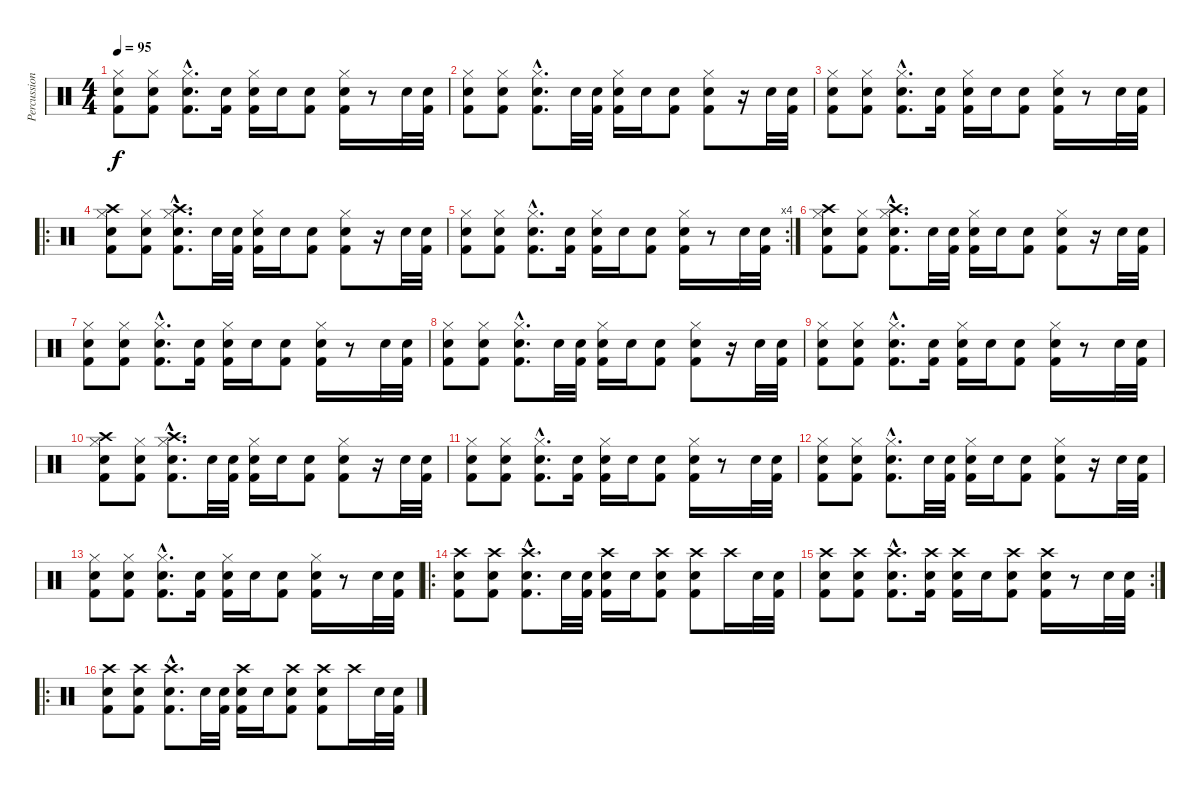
\track ("Percussions" "Percussion") {instrument percussion}
\staff {score}
\articulation defaults
\ts (4 4)
\tempo 95
\clef neutral
\ks c
("Kick (hit) 2" "Snare (hit) 2" "Hi-Hat (closed)").8{dy f} ("Kick (hit) 2" "Snare (hit) 2" "Hi-Hat (closed)").8 ("Kick (hit) 2"{hac} "Snare (hit) 2"{hac} "Hi-Hat (closed)"{hac}).8{d} ("Kick (hit) 2" "Snare (hit) 2").16 ("Kick (hit) 2" "Snare (hit) 2" "Hi-Hat (closed)").16 "Snare (hit) 2".16 ("Kick (hit) 2" "Snare (hit) 2").8 ("Kick (hit) 2" "Snare (hit) 2" "Hi-Hat (closed)").16 r.8 "Snare (hit) 2".32 ("Kick (hit) 2" "Snare (hit) 2").32 |
("Kick (hit) 2" "Snare (hit) 2" "Hi-Hat (closed)").8 ("Kick (hit) 2" "Snare (hit) 2" "Hi-Hat (closed)").8 ("Kick (hit) 2"{hac} "Snare (hit) 2"{hac} "Hi-Hat (closed)"{hac}).8{d} "Snare (hit) 2".32 ("Kick (hit) 2" "Snare (hit) 2").32 ("Kick (hit) 2" "Snare (hit) 2" "Hi-Hat (closed)").16 "Snare (hit) 2".16 ("Kick (hit) 2" "Snare (hit) 2").8 ("Kick (hit) 2" "Snare (hit) 2" "Hi-Hat (closed)").8 r.16 "Snare (hit) 2".32 ("Kick (hit) 2" "Snare (hit) 2").32 |
("Kick (hit) 2" "Snare (hit) 2" "Hi-Hat (closed)").8 ("Kick (hit) 2" "Snare (hit) 2" "Hi-Hat (closed)").8 ("Kick (hit) 2"{hac} "Snare (hit) 2"{hac} "Hi-Hat (closed)"{hac}).8{d} ("Kick (hit) 2" "Snare (hit) 2").16 ("Kick (hit) 2" "Snare (hit) 2" "Hi-Hat (closed)").16 "Snare (hit) 2".16 ("Kick (hit) 2" "Snare (hit) 2").8 ("Kick (hit) 2" "Snare (hit) 2" "Hi-Hat (closed)").16 r.8 "Snare (hit) 2".32 ("Kick (hit) 2" "Snare (hit) 2").32 |
\ro
("Kick (hit) 2" "Snare (hit) 2" "Hi-Hat (closed)" "Crash high (hit)").8 ("Kick (hit) 2" "Snare (hit) 2" "Hi-Hat (closed)").8 ("Kick (hit) 2"{hac} "Snare (hit) 2"{hac} "Hi-Hat (closed)"{hac} "Crash high (hit)"{hac}).8{d} "Snare (hit) 2".32 ("Kick (hit) 2" "Snare (hit) 2").32 ("Kick (hit) 2" "Snare (hit) 2" "Hi-Hat (closed)").16 "Snare (hit) 2".16 ("Kick (hit) 2" "Snare (hit) 2").8 ("Kick (hit) 2" "Snare (hit) 2" "Hi-Hat (closed)").8 r.16 "Snare (hit) 2".32 ("Kick (hit) 2" "Snare (hit) 2").32 |
\rc 4
("Kick (hit) 2" "Snare (hit) 2" "Hi-Hat (closed)").8 ("Kick (hit) 2" "Snare (hit) 2" "Hi-Hat (closed)").8 ("Kick (hit) 2"{hac} "Snare (hit) 2"{hac} "Hi-Hat (closed)"{hac}).8{d} ("Kick (hit) 2" "Snare (hit) 2").16 ("Kick (hit) 2" "Snare (hit) 2" "Hi-Hat (closed)").16 "Snare (hit) 2".16 ("Kick (hit) 2" "Snare (hit) 2").8 ("Kick (hit) 2" "Snare (hit) 2" "Hi-Hat (closed)").16 r.8 "Snare (hit) 2".32 ("Kick (hit) 2" "Snare (hit) 2").32 |
("Kick (hit) 2" "Snare (hit) 2" "Hi-Hat (closed)" "Crash high (hit)").8 ("Kick (hit) 2" "Snare (hit) 2" "Hi-Hat (closed)").8 ("Kick (hit) 2"{hac} "Snare (hit) 2"{hac} "Hi-Hat (closed)"{hac} "Crash high (hit)"{hac}).8{d} "Snare (hit) 2".32 ("Kick (hit) 2" "Snare (hit) 2").32 ("Kick (hit) 2" "Snare (hit) 2" "Hi-Hat (closed)").16 "Snare (hit) 2".16 ("Kick (hit) 2" "Snare (hit) 2").8 ("Kick (hit) 2" "Snare (hit) 2" "Hi-Hat (closed)").8 r.16 "Snare (hit) 2".32 ("Kick (hit) 2" "Snare (hit) 2").32 |
("Kick (hit) 2" "Snare (hit) 2" "Hi-Hat (closed)").8 ("Kick (hit) 2" "Snare (hit) 2" "Hi-Hat (closed)").8 ("Kick (hit) 2"{hac} "Snare (hit) 2"{hac} "Hi-Hat (closed)"{hac}).8{d} ("Kick (hit) 2" "Snare (hit) 2").16 ("Kick (hit) 2" "Snare (hit) 2" "Hi-Hat (closed)").16 "Snare (hit) 2".16 ("Kick (hit) 2" "Snare (hit) 2").8 ("Kick (hit) 2" "Snare (hit) 2" "Hi-Hat (closed)").16 r.8 "Snare (hit) 2".32 ("Kick (hit) 2" "Snare (hit) 2").32 |
("Kick (hit) 2" "Snare (hit) 2" "Hi-Hat (closed)").8 ("Kick (hit) 2" "Snare (hit) 2" "Hi-Hat (closed)").8 ("Kick (hit) 2"{hac} "Snare (hit) 2"{hac} "Hi-Hat (closed)"{hac}).8{d} "Snare (hit) 2".32 ("Kick (hit) 2" "Snare (hit) 2").32 ("Kick (hit) 2" "Snare (hit) 2" "Hi-Hat (closed)").16 "Snare (hit) 2".16 ("Kick (hit) 2" "Snare (hit) 2").8 ("Kick (hit) 2" "Snare (hit) 2" "Hi-Hat (closed)").8 r.16 "Snare (hit) 2".32 ("Kick (hit) 2" "Snare (hit) 2").32 |
("Kick (hit) 2" "Snare (hit) 2" "Hi-Hat (closed)").8 ("Kick (hit) 2" "Snare (hit) 2" "Hi-Hat (closed)").8 ("Kick (hit) 2"{hac} "Snare (hit) 2"{hac} "Hi-Hat (closed)"{hac}).8{d} ("Kick (hit) 2" "Snare (hit) 2").16 ("Kick (hit) 2" "Snare (hit) 2" "Hi-Hat (closed)").16 "Snare (hit) 2".16 ("Kick (hit) 2" "Snare (hit) 2").8 ("Kick (hit) 2" "Snare (hit) 2" "Hi-Hat (closed)").16 r.8 "Snare (hit) 2".32 ("Kick (hit) 2" "Snare (hit) 2").32 |
("Kick (hit) 2" "Snare (hit) 2" "Hi-Hat (closed)" "Crash high (hit)").8 ("Kick (hit) 2" "Snare (hit) 2" "Hi-Hat (closed)").8 ("Kick (hit) 2"{hac} "Snare (hit) 2"{hac} "Hi-Hat (closed)"{hac} "Crash high (hit)"{hac}).8{d} "Snare (hit) 2".32 ("Kick (hit) 2" "Snare (hit) 2").32 ("Kick (hit) 2" "Snare (hit) 2" "Hi-Hat (closed)").16 "Snare (hit) 2".16 ("Kick (hit) 2" "Snare (hit) 2").8 ("Kick (hit) 2" "Snare (hit) 2" "Hi-Hat (closed)").8 r.16 "Snare (hit) 2".32 ("Kick (hit) 2" "Snare (hit) 2").32 |
("Kick (hit) 2" "Snare (hit) 2" "Hi-Hat (closed)").8 ("Kick (hit) 2" "Snare (hit) 2" "Hi-Hat (closed)").8 ("Kick (hit) 2"{hac} "Snare (hit) 2"{hac} "Hi-Hat (closed)"{hac}).8{d} ("Kick (hit) 2" "Snare (hit) 2").16 ("Kick (hit) 2" "Snare (hit) 2" "Hi-Hat (closed)").16 "Snare (hit) 2".16 ("Kick (hit) 2" "Snare (hit) 2").8 ("Kick (hit) 2" "Snare (hit) 2" "Hi-Hat (closed)").16 r.8 "Snare (hit) 2".32 ("Kick (hit) 2" "Snare (hit) 2").32 |
("Kick (hit) 2" "Snare (hit) 2" "Hi-Hat (closed)").8 ("Kick (hit) 2" "Snare (hit) 2" "Hi-Hat (closed)").8 ("Kick (hit) 2"{hac} "Snare (hit) 2"{hac} "Hi-Hat (closed)"{hac}).8{d} "Snare (hit) 2".32 ("Kick (hit) 2" "Snare (hit) 2").32 ("Kick (hit) 2" "Snare (hit) 2" "Hi-Hat (closed)").16 "Snare (hit) 2".16 ("Kick (hit) 2" "Snare (hit) 2").8 ("Kick (hit) 2" "Snare (hit) 2" "Hi-Hat (closed)").8 r.16 "Snare (hit) 2".32 ("Kick (hit) 2" "Snare (hit) 2").32 |
("Kick (hit) 2" "Snare (hit) 2" "Hi-Hat (closed)").8 ("Kick (hit) 2" "Snare (hit) 2" "Hi-Hat (closed)").8 ("Kick (hit) 2"{hac} "Snare (hit) 2"{hac} "Hi-Hat (closed)"{hac}).8{d} ("Kick (hit) 2" "Snare (hit) 2").16 ("Kick (hit) 2" "Snare (hit) 2" "Hi-Hat (closed)").16 "Snare (hit) 2".16 ("Kick (hit) 2" "Snare (hit) 2").8 ("Kick (hit) 2" "Snare (hit) 2" "Hi-Hat (closed)").16 r.8 "Snare (hit) 2".32 ("Kick (hit) 2" "Snare (hit) 2").32 |
\ro
("Kick (hit) 2" "Snare (hit) 2" "Crash high (hit)").8 ("Kick (hit) 2" "Snare (hit) 2" "Crash high (hit)").8 ("Kick (hit) 2"{hac} "Snare (hit) 2"{hac} "Crash high (hit)"{hac}).8{d} "Snare (hit) 2".32 ("Kick (hit) 2" "Snare (hit) 2").32 ("Kick (hit) 2" "Snare (hit) 2" "Crash high (hit)").16 "Snare (hit) 2".16 ("Kick (hit) 2" "Snare (hit) 2" "Crash high (hit)").8 ("Kick (hit) 2" "Snare (hit) 2" "Crash high (hit)").8 "Crash high (hit)".16 "Snare (hit) 2".32 ("Kick (hit) 2" "Snare (hit) 2").32 |
\rc 2
("Kick (hit) 2" "Snare (hit) 2" "Crash high (hit)").8 ("Kick (hit) 2" "Snare (hit) 2" "Crash high (hit)").8 ("Kick (hit) 2"{hac} "Snare (hit) 2"{hac} "Crash high (hit)"{hac}).8{d} ("Kick (hit) 2" "Snare (hit) 2" "Crash high (hit)").16 ("Kick (hit) 2" "Snare (hit) 2" "Crash high (hit)").16 "Snare (hit) 2".16 ("Kick (hit) 2" "Snare (hit) 2" "Crash high (hit)").8 ("Kick (hit) 2" "Snare (hit) 2" "Crash high (hit)").16 r.8 "Snare (hit) 2".32 ("Kick (hit) 2" "Snare (hit) 2").32 |
\ro
("Kick (hit) 2" "Snare (hit) 2" "Crash high (hit)").8 ("Kick (hit) 2" "Snare (hit) 2" "Crash high (hit)").8 ("Kick (hit) 2"{hac} "Snare (hit) 2"{hac} "Crash high (hit)"{hac}).8{d} "Snare (hit) 2".32 ("Kick (hit) 2" "Snare (hit) 2").32 ("Kick (hit) 2" "Snare (hit) 2" "Crash high (hit)").16 "Snare (hit) 2".16 ("Kick (hit) 2" "Snare (hit) 2" "Crash high (hit)").8 ("Kick (hit) 2" "Snare (hit) 2" "Crash high (hit)").8 "Crash high (hit)".16 "Snare (hit) 2".32 ("Kick (hit) 2" "Snare (hit) 2").32
